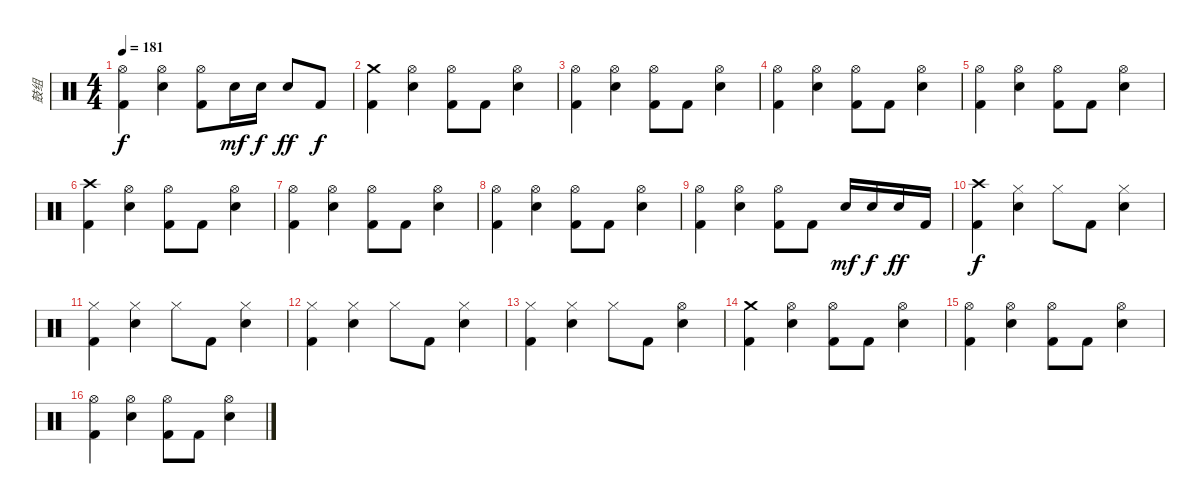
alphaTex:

\track ("鼓组" "鼓组") {instrument percussion}
\staff {score}
\articulation defaults
\ts (4 4)
\tempo 181
\clef neutral
\ks c
("Hi-Hat (open)" "Kick (hit) 2").4{dy f} ("Hi-Hat (open)" "Snare (hit) 2").4 ("Hi-Hat (open)" "Kick (hit) 2").8 "Snare (hit) 2".16{dy mf} "Snare (hit) 2".16{dy f} "Snare (hit) 2".8{dy ff} "Kick (hit) 2".8{dy f} |
("Crash medium (hit)" "Kick (hit) 2").4 ("Hi-Hat (open)" "Snare (hit) 2").4 ("Hi-Hat (open)" "Kick (hit) 2").8 "Kick (hit) 2".8 ("Hi-Hat (open)" "Snare (hit) 2").4 |
("Hi-Hat (open)" "Kick (hit) 2").4 ("Hi-Hat (open)" "Snare (hit) 2").4 ("Hi-Hat (open)" "Kick (hit) 2").8 "Kick (hit) 2".8 ("Hi-Hat (open)" "Snare (hit) 2").4 |
("Hi-Hat (open)" "Kick (hit) 2").4 ("Hi-Hat (open)" "Snare (hit) 2").4 ("Hi-Hat (open)" "Kick (hit) 2").8 "Kick (hit) 2".8 ("Hi-Hat (open)" "Snare (hit) 2").4 |
("Hi-Hat (open)" "Kick (hit) 2").4 ("Hi-Hat (open)" "Snare (hit) 2").4 ("Hi-Hat (open)" "Kick (hit) 2").8 "Kick (hit) 2".8 ("Hi-Hat (open)" "Snare (hit) 2").4 |
("Crash high (hit)" "Kick (hit) 2").4 ("Hi-Hat (open)" "Snare (hit) 2").4 ("Hi-Hat (open)" "Kick (hit) 2").8 "Kick (hit) 2".8 ("Hi-Hat (open)" "Snare (hit) 2").4 |
("Hi-Hat (open)" "Kick (hit) 2").4 ("Hi-Hat (open)" "Snare (hit) 2").4 ("Hi-Hat (open)" "Kick (hit) 2").8 "Kick (hit) 2".8 ("Hi-Hat (open)" "Snare (hit) 2").4 |
("Hi-Hat (open)" "Kick (hit) 2").4 ("Hi-Hat (open)" "Snare (hit) 2").4 ("Hi-Hat (open)" "Kick (hit) 2").8 "Kick (hit) 2".8 ("Hi-Hat (open)" "Snare (hit) 2").4 |
("Hi-Hat (open)" "Kick (hit) 2").4 ("Hi-Hat (open)" "Snare (hit) 2").4 ("Hi-Hat (open)" "Kick (hit) 2").8 "Kick (hit) 2".8 "Snare (hit) 2".16{dy mf} "Snare (hit) 2".16{dy f} "Snare (hit) 2".16{dy ff} "Kick (hit) 2".16 |
("Crash high (hit)" "Kick (hit) 2").4{dy f} ("Hi-Hat (closed)" "Snare (hit) 2").4 "Hi-Hat (closed)".8 "Kick (hit) 2".8 ("Hi-Hat (closed)" "Snare (hit) 2").4 |
("Hi-Hat (closed)" "Kick (hit) 2").4 ("Hi-Hat (closed)" "Snare (hit) 2").4 "Hi-Hat (closed)".8 "Kick (hit) 2".8 ("Hi-Hat (closed)" "Snare (hit) 2").4 |
("Hi-Hat (closed)" "Kick (hit) 2").4 ("Hi-Hat (closed)" "Snare (hit) 2").4 "Hi-Hat (closed)".8 "Kick (hit) 2".8 ("Hi-Hat (closed)" "Snare (hit) 2").4 |
("Hi-Hat (closed)" "Kick (hit) 2").4 ("Hi-Hat (closed)" "Snare (hit) 2").4 "Hi-Hat (closed)".8 "Kick (hit) 2".8 ("Hi-Hat (open)" "Snare (hit) 2").4 |
("Crash medium (hit)" "Kick (hit) 2").4 ("Hi-Hat (open)" "Snare (hit) 2").4 ("Hi-Hat (open)" "Kick (hit) 2").8 "Kick (hit) 2".8 ("Hi-Hat (open)" "Snare (hit) 2").4 |
("Hi-Hat (open)" "Kick (hit) 2").4 ("Hi-Hat (open)" "Snare (hit) 2").4 ("Hi-Hat (open)" "Kick (hit) 2").8 "Kick (hit) 2".8 ("Hi-Hat (open)" "Snare (hit) 2").4 |
("Hi-Hat (open)" "Kick (hit) 2").4 ("Hi-Hat (open)" "Snare (hit) 2").4 ("Hi-Hat (open)" "Kick (hit) 2").8 "Kick (hit) 2".8 ("Hi-Hat (open)" "Snare (hit) 2").4
